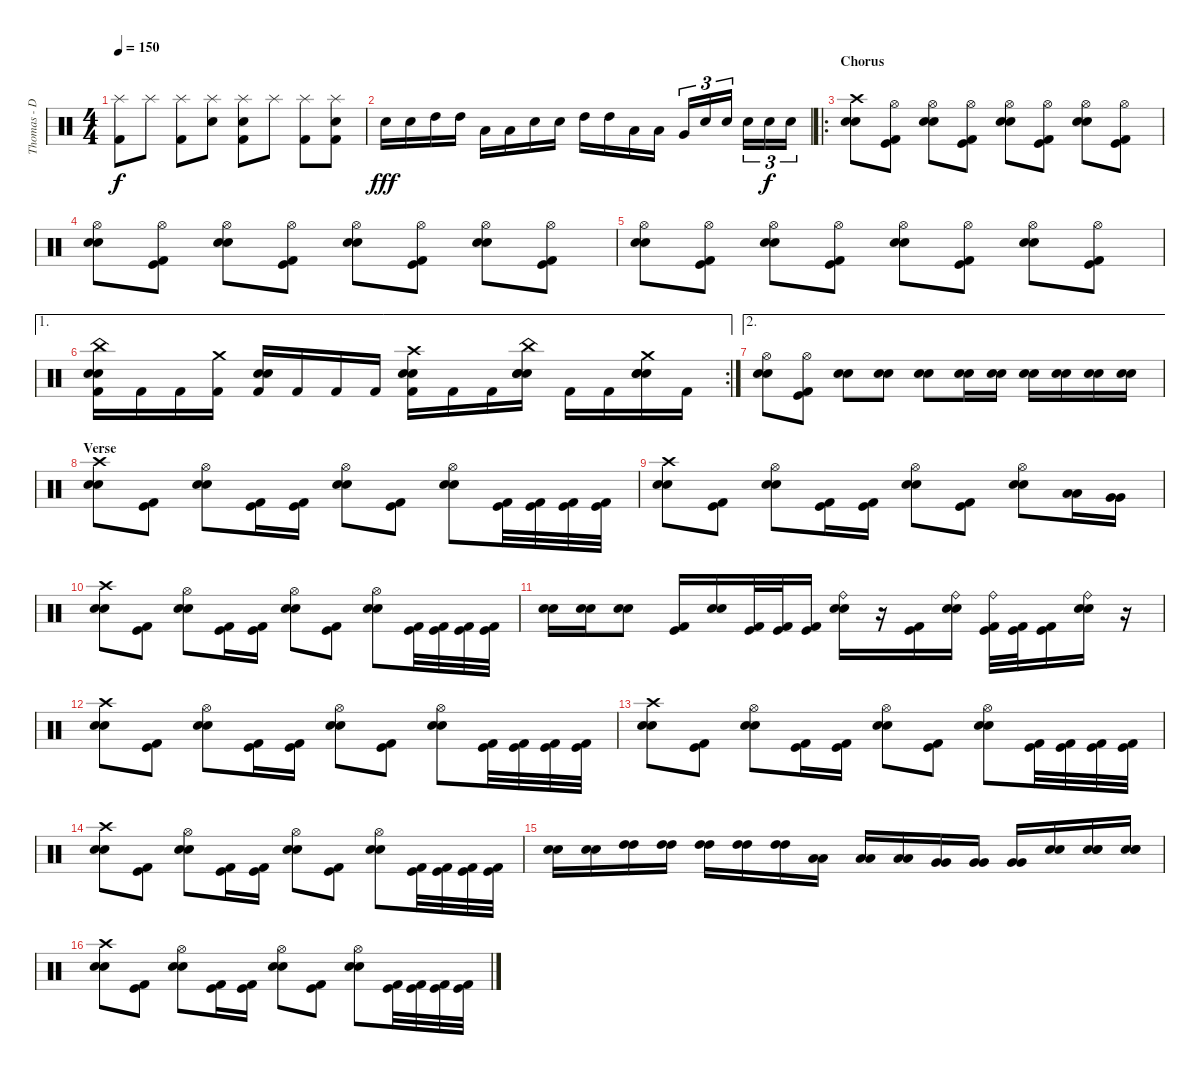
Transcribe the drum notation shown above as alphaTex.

\track ("Thomas - Dr00mz" "Thomas - D") {instrument percussion}
\staff {score}
\articulation defaults
\ts (4 4)
\tempo 150
\clef neutral
\ks c
("Splash (hit)" "Kick (hit) 2").8{dy f} "Splash (hit)".8 ("Splash (hit)" "Kick (hit) 2").8 ("Splash (hit)" "Electric Snare (hit)").8 ("Splash (hit)" "Electric Snare (hit)" "Kick (hit) 2").8 "Splash (hit)".8 ("Splash (hit)" "Kick (hit) 2").8 ("Splash (hit)" "Electric Snare (hit)" "Kick (hit) 2").8 |
"Electric Snare (hit)".16{dy fff} "Electric Snare (hit)".16 "High Tom (hit)".16 "High Tom (hit)".16 "Low Tom (hit)".16 "Low Tom (hit)".16 "Electric Snare (hit)".16 "Electric Snare (hit)".16 "High Tom (hit)".16 "High Tom (hit)".16 "Low Tom (hit)".16 "Low Tom (hit)".16 "Very Low Tom (hit)".16{tu (3 2)} "Electric Snare (hit)".16{tu (3 2)} "Electric Snare (hit)".16{tu (3 2)} "Electric Snare (hit)".16{tu (3 2)} "Electric Snare (hit)".16{tu (3 2) dy f} "Electric Snare (hit)".16{tu (3 2)} |
\ro
\section ("" "Chorus")
("Crash high (hit)" "Electric Snare (hit)" "Electric Snare (hit)").8 ("Hi-Hat (open)" "Kick (hit)" "Kick (hit) 2").8 ("Hi-Hat (open)" "Electric Snare (hit)" "Electric Snare (hit)").8 ("Hi-Hat (open)" "Kick (hit)" "Kick (hit) 2").8 ("Hi-Hat (open)" "Electric Snare (hit)" "Electric Snare (hit)").8 ("Hi-Hat (open)" "Kick (hit)" "Kick (hit) 2").8 ("Hi-Hat (open)" "Electric Snare (hit)" "Electric Snare (hit)").8 ("Hi-Hat (open)" "Kick (hit)" "Kick (hit) 2").8 |
("Hi-Hat (open)" "Electric Snare (hit)" "Electric Snare (hit)").8 ("Hi-Hat (open)" "Kick (hit)" "Kick (hit) 2").8 ("Hi-Hat (open)" "Electric Snare (hit)" "Electric Snare (hit)").8 ("Hi-Hat (open)" "Kick (hit)" "Kick (hit) 2").8 ("Hi-Hat (open)" "Electric Snare (hit)" "Electric Snare (hit)").8 ("Hi-Hat (open)" "Kick (hit)" "Kick (hit) 2").8 ("Hi-Hat (open)" "Electric Snare (hit)" "Electric Snare (hit)").8 ("Hi-Hat (open)" "Kick (hit)" "Kick (hit) 2").8 |
("Hi-Hat (open)" "Electric Snare (hit)" "Electric Snare (hit)").8 ("Hi-Hat (open)" "Kick (hit)" "Kick (hit) 2").8 ("Hi-Hat (open)" "Electric Snare (hit)" "Electric Snare (hit)").8 ("Hi-Hat (open)" "Kick (hit)" "Kick (hit) 2").8 ("Hi-Hat (open)" "Electric Snare (hit)" "Electric Snare (hit)").8 ("Hi-Hat (open)" "Kick (hit)" "Kick (hit) 2").8 ("Hi-Hat (open)" "Electric Snare (hit)" "Electric Snare (hit)").8 ("Hi-Hat (open)" "Kick (hit)" "Kick (hit) 2").8 |
\ae 1
\rc 2
("China (hit)" "Electric Snare (hit)" "Electric Snare (hit)" "Kick (hit) 2").16 "Kick (hit) 2".16 "Kick (hit) 2".16 ("Crash medium (hit)" "Kick (hit) 2").16 ("Electric Snare (hit)" "Electric Snare (hit)" "Kick (hit) 2").16 "Kick (hit) 2".16 "Kick (hit) 2".16 "Kick (hit) 2".16 ("Crash high (hit)" "Electric Snare (hit)" "Electric Snare (hit)" "Kick (hit) 2").16 "Kick (hit) 2".16 "Kick (hit) 2".16 ("China (hit)" "Electric Snare (hit)" "Electric Snare (hit)" "Electric Snare (hit)").16 "Kick (hit) 2".16 "Kick (hit) 2".16 ("Crash medium (hit)" "Electric Snare (hit)" "Electric Snare (hit)" "Electric Snare (hit)").16 "Kick (hit) 2".16 |
\ae 2
("Hi-Hat (open)" "Electric Snare (hit)" "Electric Snare (hit)").8 ("Hi-Hat (open)" "Kick (hit)" "Kick (hit) 2").8 ("Electric Snare (hit)" "Electric Snare (hit)").8 ("Electric Snare (hit)" "Electric Snare (hit)").8 ("Electric Snare (hit)" "Electric Snare (hit)").8 ("Electric Snare (hit)" "Electric Snare (hit)").16 ("Electric Snare (hit)" "Electric Snare (hit)").16 ("Electric Snare (hit)" "Electric Snare (hit)").16 ("Electric Snare (hit)" "Electric Snare (hit)").16 ("Electric Snare (hit)" "Electric Snare (hit)").16 ("Electric Snare (hit)" "Electric Snare (hit)").16 |
\section ("" "Verse ")
("Crash high (hit)" "Electric Snare (hit)" "Electric Snare (hit)").8 ("Kick (hit)" "Kick (hit) 2").8 ("Hi-Hat (open)" "Electric Snare (hit)" "Electric Snare (hit)").8 ("Kick (hit)" "Kick (hit) 2").16 ("Kick (hit)" "Kick (hit) 2").16 ("Hi-Hat (open)" "Electric Snare (hit)" "Electric Snare (hit)").8 ("Kick (hit)" "Kick (hit) 2").8 ("Hi-Hat (open)" "Electric Snare (hit)" "Electric Snare (hit)").8 ("Kick (hit)" "Kick (hit) 2").32 ("Kick (hit)" "Kick (hit) 2").32 ("Kick (hit)" "Kick (hit) 2").32 ("Kick (hit)" "Kick (hit) 2").32 |
("Crash high (hit)" "Electric Snare (hit)" "Electric Snare (hit)").8 ("Kick (hit)" "Kick (hit) 2").8 ("Hi-Hat (open)" "Electric Snare (hit)" "Electric Snare (hit)").8 ("Kick (hit)" "Kick (hit) 2").16 ("Kick (hit)" "Kick (hit) 2").16 ("Hi-Hat (open)" "Electric Snare (hit)" "Electric Snare (hit)").8 ("Kick (hit)" "Kick (hit) 2").8 ("Hi-Hat (open)" "Electric Snare (hit)" "Electric Snare (hit)").8 ("Low Tom (hit)" "Low Tom (hit)").16 ("Very Low Tom (hit)" "Very Low Tom (hit)").16 |
("Crash high (hit)" "Electric Snare (hit)" "Electric Snare (hit)").8 ("Kick (hit)" "Kick (hit) 2").8 ("Hi-Hat (open)" "Electric Snare (hit)" "Electric Snare (hit)").8 ("Kick (hit)" "Kick (hit) 2").16 ("Kick (hit)" "Kick (hit) 2").16 ("Hi-Hat (open)" "Electric Snare (hit)" "Electric Snare (hit)").8 ("Kick (hit)" "Kick (hit) 2").8 ("Hi-Hat (open)" "Electric Snare (hit)" "Electric Snare (hit)").8 ("Kick (hit)" "Kick (hit) 2").32 ("Kick (hit)" "Kick (hit) 2").32 ("Kick (hit)" "Kick (hit) 2").32 ("Kick (hit)" "Kick (hit) 2").32 |
("Electric Snare (hit)" "Electric Snare (hit)").16 ("Electric Snare (hit)" "Electric Snare (hit)").16 ("Electric Snare (hit)" "Electric Snare (hit)").8 ("Kick (hit)" "Kick (hit) 2").16 ("Electric Snare (hit)" "Electric Snare (hit)").16 ("Kick (hit)" "Kick (hit) 2").32 ("Kick (hit)" "Kick (hit) 2").32 ("Kick (hit)" "Kick (hit) 2").16 ("Ride (bell)" "Electric Snare (hit)" "Electric Snare (hit)").16 r.16 ("Kick (hit)" "Kick (hit) 2").16 ("Ride (bell)" "Electric Snare (hit)" "Electric Snare (hit)").16 ("Ride (bell)" "Kick (hit)" "Kick (hit) 2").32 ("Kick (hit)" "Kick (hit) 2").32 ("Kick (hit)" "Kick (hit) 2").16 ("Ride (bell)" "Electric Snare (hit)" "Electric Snare (hit)").16 r.16 |
("Crash high (hit)" "Electric Snare (hit)" "Electric Snare (hit)").8 ("Kick (hit)" "Kick (hit) 2").8 ("Hi-Hat (open)" "Electric Snare (hit)" "Electric Snare (hit)").8 ("Kick (hit)" "Kick (hit) 2").16 ("Kick (hit)" "Kick (hit) 2").16 ("Hi-Hat (open)" "Electric Snare (hit)" "Electric Snare (hit)").8 ("Kick (hit)" "Kick (hit) 2").8 ("Hi-Hat (open)" "Electric Snare (hit)" "Electric Snare (hit)").8 ("Kick (hit)" "Kick (hit) 2").32 ("Kick (hit)" "Kick (hit) 2").32 ("Kick (hit)" "Kick (hit) 2").32 ("Kick (hit)" "Kick (hit) 2").32 |
("Crash high (hit)" "Electric Snare (hit)" "Electric Snare (hit)").8 ("Kick (hit)" "Kick (hit) 2").8 ("Hi-Hat (open)" "Electric Snare (hit)" "Electric Snare (hit)").8 ("Kick (hit)" "Kick (hit) 2").16 ("Kick (hit)" "Kick (hit) 2").16 ("Hi-Hat (open)" "Electric Snare (hit)" "Electric Snare (hit)").8 ("Kick (hit)" "Kick (hit) 2").8 ("Hi-Hat (open)" "Electric Snare (hit)" "Electric Snare (hit)").8 ("Kick (hit)" "Kick (hit) 2").32 ("Kick (hit)" "Kick (hit) 2").32 ("Kick (hit)" "Kick (hit) 2").32 ("Kick (hit)" "Kick (hit) 2").32 |
("Crash high (hit)" "Electric Snare (hit)" "Electric Snare (hit)").8 ("Kick (hit)" "Kick (hit) 2").8 ("Hi-Hat (open)" "Electric Snare (hit)" "Electric Snare (hit)").8 ("Kick (hit)" "Kick (hit) 2").16 ("Kick (hit)" "Kick (hit) 2").16 ("Hi-Hat (open)" "Electric Snare (hit)" "Electric Snare (hit)").8 ("Kick (hit)" "Kick (hit) 2").8 ("Hi-Hat (open)" "Electric Snare (hit)" "Electric Snare (hit)").8 ("Kick (hit)" "Kick (hit) 2").32 ("Kick (hit)" "Kick (hit) 2").32 ("Kick (hit)" "Kick (hit) 2").32 ("Kick (hit)" "Kick (hit) 2").32 |
("Electric Snare (hit)" "Electric Snare (hit)").16 ("Electric Snare (hit)" "Electric Snare (hit)").16 ("High Tom (hit)" "High Tom (hit)").16 ("High Tom (hit)" "High Tom (hit)").16 ("High Tom (hit)" "High Tom (hit)").16 ("High Tom (hit)" "High Tom (hit)").16 ("High Tom (hit)" "High Tom (hit)").16 ("Low Tom (hit)" "Low Tom (hit)").16 ("Low Tom (hit)" "Low Tom (hit)").16 ("Low Tom (hit)" "Low Tom (hit)").16 ("Very Low Tom (hit)" "Very Low Tom (hit)").16 ("Very Low Tom (hit)" "Very Low Tom (hit)").16 ("Very Low Tom (hit)" "Very Low Tom (hit)").16 ("Electric Snare (hit)" "Electric Snare (hit)").16 ("Electric Snare (hit)" "Electric Snare (hit)" "Electric Snare (hit)").16 ("Electric Snare (hit)" "Electric Snare (hit)" "Electric Snare (hit)").16 |
("Crash high (hit)" "Electric Snare (hit)" "Electric Snare (hit)").8 ("Kick (hit)" "Kick (hit) 2").8 ("Hi-Hat (open)" "Electric Snare (hit)" "Electric Snare (hit)").8 ("Kick (hit)" "Kick (hit) 2").16 ("Kick (hit)" "Kick (hit) 2").16 ("Hi-Hat (open)" "Electric Snare (hit)" "Electric Snare (hit)").8 ("Kick (hit)" "Kick (hit) 2").8 ("Hi-Hat (open)" "Electric Snare (hit)" "Electric Snare (hit)").8 ("Kick (hit)" "Kick (hit) 2").32 ("Kick (hit)" "Kick (hit) 2").32 ("Kick (hit)" "Kick (hit) 2").32 ("Kick (hit)" "Kick (hit) 2").32
